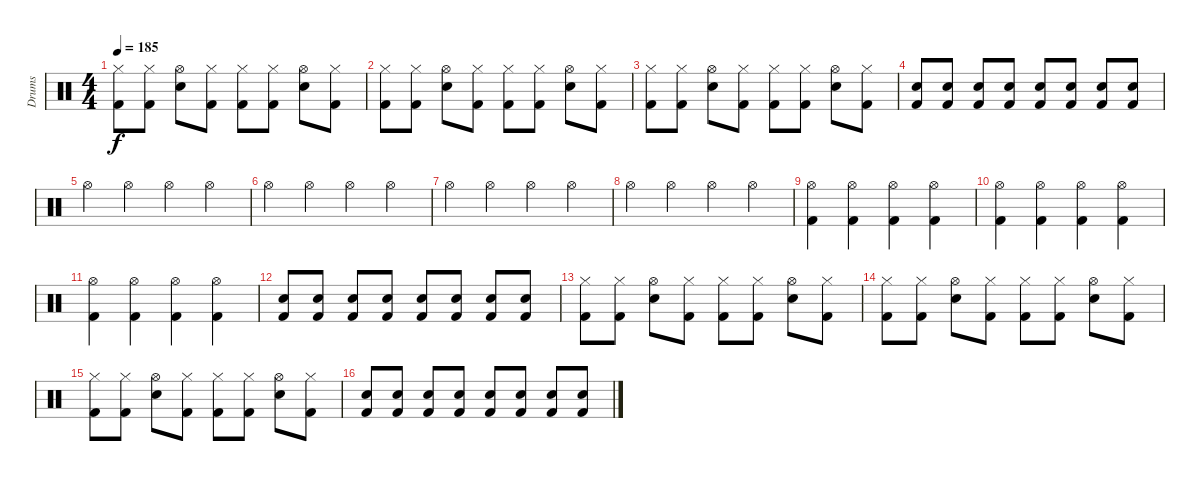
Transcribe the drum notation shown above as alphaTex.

\track ("Drums" "Drums") {instrument percussion}
\staff {score}
\articulation defaults
\ts (4 4)
\tempo 185
\clef neutral
\ks c
("Hi-Hat (closed)" "Kick (hit) 2").8{dy f} ("Hi-Hat (closed)" "Kick (hit) 2").8 ("Hi-Hat (open)" "Snare (hit) 2").8 ("Hi-Hat (closed)" "Kick (hit) 2").8 ("Hi-Hat (closed)" "Kick (hit) 2").8 ("Hi-Hat (closed)" "Kick (hit) 2").8 ("Hi-Hat (open)" "Snare (hit) 2").8 ("Hi-Hat (closed)" "Kick (hit) 2").8 |
("Hi-Hat (closed)" "Kick (hit) 2").8 ("Hi-Hat (closed)" "Kick (hit) 2").8 ("Hi-Hat (open)" "Snare (hit) 2").8 ("Hi-Hat (closed)" "Kick (hit) 2").8 ("Hi-Hat (closed)" "Kick (hit) 2").8 ("Hi-Hat (closed)" "Kick (hit) 2").8 ("Hi-Hat (open)" "Snare (hit) 2").8 ("Hi-Hat (closed)" "Kick (hit) 2").8 |
("Hi-Hat (closed)" "Kick (hit) 2").8 ("Hi-Hat (closed)" "Kick (hit) 2").8 ("Hi-Hat (open)" "Snare (hit) 2").8 ("Hi-Hat (closed)" "Kick (hit) 2").8 ("Hi-Hat (closed)" "Kick (hit) 2").8 ("Hi-Hat (closed)" "Kick (hit) 2").8 ("Hi-Hat (open)" "Snare (hit) 2").8 ("Hi-Hat (closed)" "Kick (hit) 2").8 |
("Snare (hit) 2" "Kick (hit) 2").8 ("Snare (hit) 2" "Kick (hit) 2").8 ("Snare (hit) 2" "Kick (hit) 2").8 ("Snare (hit) 2" "Kick (hit) 2").8 ("Snare (hit) 2" "Kick (hit) 2").8 ("Snare (hit) 2" "Kick (hit) 2").8 ("Snare (hit) 2" "Kick (hit) 2").8 ("Snare (hit) 2" "Kick (hit) 2").8 |
"Hi-Hat (open)".4 "Hi-Hat (open)".4 "Hi-Hat (open)".4 "Hi-Hat (open)".4 |
"Hi-Hat (open)".4 "Hi-Hat (open)".4 "Hi-Hat (open)".4 "Hi-Hat (open)".4 |
"Hi-Hat (open)".4 "Hi-Hat (open)".4 "Hi-Hat (open)".4 "Hi-Hat (open)".4 |
"Hi-Hat (open)".4 "Hi-Hat (open)".4 "Hi-Hat (open)".4 "Hi-Hat (open)".4 |
("Hi-Hat (open)" "Kick (hit) 2").4 ("Hi-Hat (open)" "Kick (hit) 2").4 ("Hi-Hat (open)" "Kick (hit) 2").4 ("Hi-Hat (open)" "Kick (hit) 2").4 |
("Hi-Hat (open)" "Kick (hit) 2").4 ("Hi-Hat (open)" "Kick (hit) 2").4 ("Hi-Hat (open)" "Kick (hit) 2").4 ("Hi-Hat (open)" "Kick (hit) 2").4 |
("Hi-Hat (open)" "Kick (hit) 2").4 ("Hi-Hat (open)" "Kick (hit) 2").4 ("Hi-Hat (open)" "Kick (hit) 2").4 ("Hi-Hat (open)" "Kick (hit) 2").4 |
("Snare (hit) 2" "Kick (hit) 2").8 ("Snare (hit) 2" "Kick (hit) 2").8 ("Snare (hit) 2" "Kick (hit) 2").8 ("Snare (hit) 2" "Kick (hit) 2").8 ("Snare (hit) 2" "Kick (hit) 2").8 ("Snare (hit) 2" "Kick (hit) 2").8 ("Snare (hit) 2" "Kick (hit) 2").8 ("Snare (hit) 2" "Kick (hit) 2").8 |
("Hi-Hat (closed)" "Kick (hit) 2").8 ("Hi-Hat (closed)" "Kick (hit) 2").8 ("Hi-Hat (open)" "Snare (hit) 2").8 ("Hi-Hat (closed)" "Kick (hit) 2").8 ("Hi-Hat (closed)" "Kick (hit) 2").8 ("Hi-Hat (closed)" "Kick (hit) 2").8 ("Hi-Hat (open)" "Snare (hit) 2").8 ("Hi-Hat (closed)" "Kick (hit) 2").8 |
("Hi-Hat (closed)" "Kick (hit) 2").8 ("Hi-Hat (closed)" "Kick (hit) 2").8 ("Hi-Hat (open)" "Snare (hit) 2").8 ("Hi-Hat (closed)" "Kick (hit) 2").8 ("Hi-Hat (closed)" "Kick (hit) 2").8 ("Hi-Hat (closed)" "Kick (hit) 2").8 ("Hi-Hat (open)" "Snare (hit) 2").8 ("Hi-Hat (closed)" "Kick (hit) 2").8 |
("Hi-Hat (closed)" "Kick (hit) 2").8 ("Hi-Hat (closed)" "Kick (hit) 2").8 ("Hi-Hat (open)" "Snare (hit) 2").8 ("Hi-Hat (closed)" "Kick (hit) 2").8 ("Hi-Hat (closed)" "Kick (hit) 2").8 ("Hi-Hat (closed)" "Kick (hit) 2").8 ("Hi-Hat (open)" "Snare (hit) 2").8 ("Hi-Hat (closed)" "Kick (hit) 2").8 |
("Snare (hit) 2" "Kick (hit) 2").8 ("Snare (hit) 2" "Kick (hit) 2").8 ("Snare (hit) 2" "Kick (hit) 2").8 ("Snare (hit) 2" "Kick (hit) 2").8 ("Snare (hit) 2" "Kick (hit) 2").8 ("Snare (hit) 2" "Kick (hit) 2").8 ("Snare (hit) 2" "Kick (hit) 2").8 ("Snare (hit) 2" "Kick (hit) 2").8
